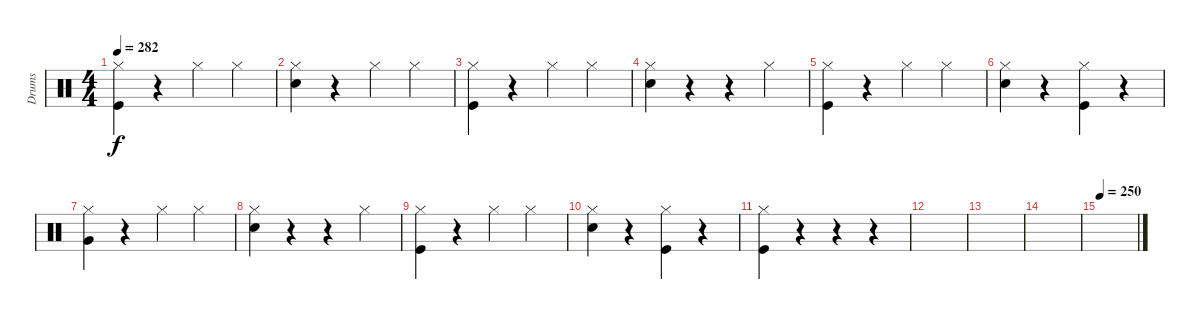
\track ("Drums" "Drums") {instrument percussion}
\staff {score}
\articulation defaults
\ts (4 4)
\tempo 282
\clef neutral
\ks c
("Kick (hit)" "Hi-Hat (closed)").4{dy f} r.4 "Hi-Hat (closed)".4 "Hi-Hat (closed)".4 |
("Snare (hit) 2" "Hi-Hat (closed)").4 r.4 "Hi-Hat (closed)".4 "Hi-Hat (closed)".4 |
("Kick (hit)" "Hi-Hat (closed)").4 r.4 "Hi-Hat (closed)".4 "Hi-Hat (closed)".4 |
("Snare (hit) 2" "Hi-Hat (closed)").4 r.4 r.4 "Hi-Hat (closed)".4 |
("Kick (hit)" "Hi-Hat (closed)").4 r.4 "Hi-Hat (closed)".4 "Hi-Hat (closed)".4 |
("Snare (hit) 2" "Hi-Hat (closed)").4 r.4 ("Kick (hit)" "Hi-Hat (closed)").4 r.4 |
("Very Low Tom (hit)" "Hi-Hat (closed)").4 r.4 "Hi-Hat (closed)".4 "Hi-Hat (closed)".4 |
("Snare (hit) 2" "Hi-Hat (closed)").4 r.4 r.4 "Hi-Hat (closed)".4 |
("Kick (hit)" "Hi-Hat (closed)").4 r.4 "Hi-Hat (closed)".4 "Hi-Hat (closed)".4 |
("Snare (hit) 2" "Hi-Hat (closed)").4 r.4 ("Kick (hit)" "Hi-Hat (closed)").4 r.4 |
("Kick (hit)" "Hi-Hat (closed)").4 r.4 r.4 r.4 |
|
|
|
\tempo 250
